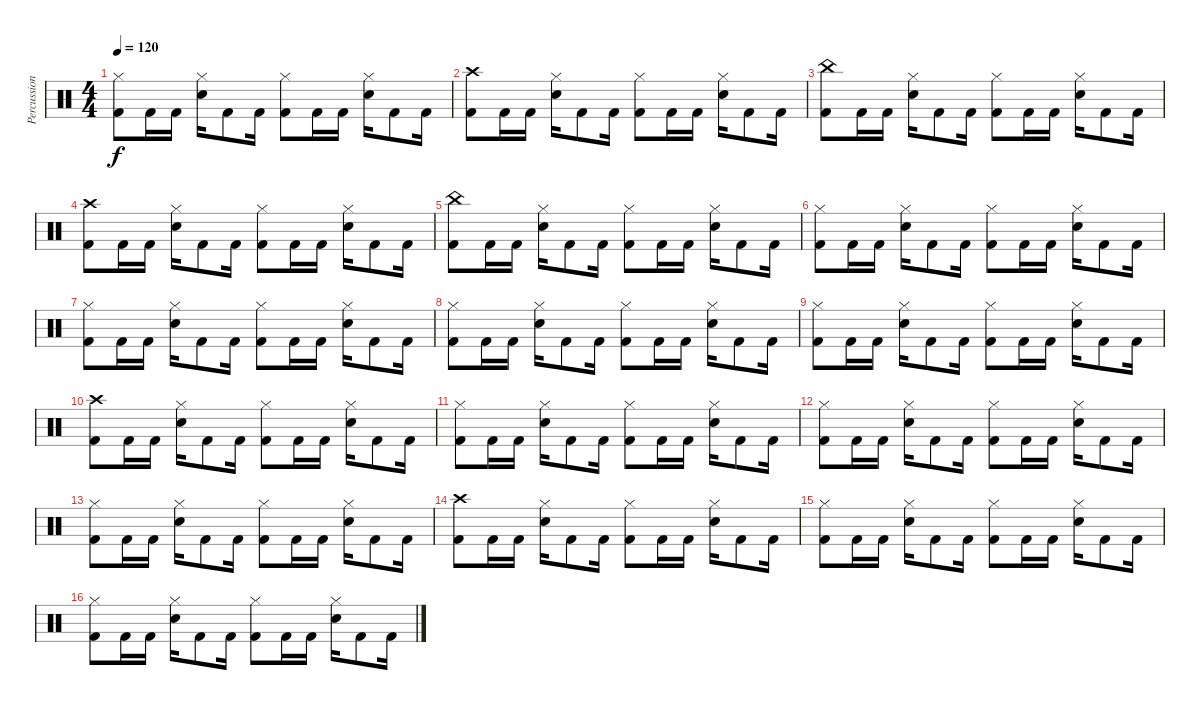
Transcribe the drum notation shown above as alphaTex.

\track ("Percussion" "Percussion") {instrument percussion}
\staff {score}
\articulation defaults
\ts (4 4)
\tempo 120
\clef neutral
\ks c
("Hi-Hat (closed)" "Kick (hit) 2").8{dy f} "Kick (hit) 2".16 "Kick (hit) 2".16 ("Hi-Hat (closed)" "Electric Snare (hit)").16 "Kick (hit) 2".8 "Kick (hit) 2".16 ("Hi-Hat (closed)" "Kick (hit) 2").8 "Kick (hit) 2".16 "Kick (hit) 2".16 ("Hi-Hat (closed)" "Electric Snare (hit)").16 "Kick (hit) 2".8 "Kick (hit) 2".16 |
("Crash high (hit)" "Kick (hit) 2").8 "Kick (hit) 2".16 "Kick (hit) 2".16 ("Hi-Hat (closed)" "Electric Snare (hit)").16 "Kick (hit) 2".8 "Kick (hit) 2".16 ("Hi-Hat (closed)" "Kick (hit) 2").8 "Kick (hit) 2".16 "Kick (hit) 2".16 ("Hi-Hat (closed)" "Electric Snare (hit)").16 "Kick (hit) 2".8 "Kick (hit) 2".16 |
("China (hit)" "Kick (hit) 2").8 "Kick (hit) 2".16 "Kick (hit) 2".16 ("Hi-Hat (closed)" "Electric Snare (hit)").16 "Kick (hit) 2".8 "Kick (hit) 2".16 ("Hi-Hat (closed)" "Kick (hit) 2").8 "Kick (hit) 2".16 "Kick (hit) 2".16 ("Hi-Hat (closed)" "Electric Snare (hit)").16 "Kick (hit) 2".8 "Kick (hit) 2".16 |
("Crash high (hit)" "Kick (hit) 2").8 "Kick (hit) 2".16 "Kick (hit) 2".16 ("Hi-Hat (closed)" "Electric Snare (hit)").16 "Kick (hit) 2".8 "Kick (hit) 2".16 ("Hi-Hat (closed)" "Kick (hit) 2").8 "Kick (hit) 2".16 "Kick (hit) 2".16 ("Hi-Hat (closed)" "Electric Snare (hit)").16 "Kick (hit) 2".8 "Kick (hit) 2".16 |
("China (hit)" "Kick (hit) 2").8 "Kick (hit) 2".16 "Kick (hit) 2".16 ("Hi-Hat (closed)" "Electric Snare (hit)").16 "Kick (hit) 2".8 "Kick (hit) 2".16 ("Hi-Hat (closed)" "Kick (hit) 2").8 "Kick (hit) 2".16 "Kick (hit) 2".16 ("Hi-Hat (closed)" "Electric Snare (hit)").16 "Kick (hit) 2".8 "Kick (hit) 2".16 |
("Hi-Hat (closed)" "Kick (hit) 2").8 "Kick (hit) 2".16 "Kick (hit) 2".16 ("Hi-Hat (closed)" "Electric Snare (hit)").16 "Kick (hit) 2".8 "Kick (hit) 2".16 ("Hi-Hat (closed)" "Kick (hit) 2").8 "Kick (hit) 2".16 "Kick (hit) 2".16 ("Hi-Hat (closed)" "Electric Snare (hit)").16 "Kick (hit) 2".8 "Kick (hit) 2".16 |
("Hi-Hat (closed)" "Kick (hit) 2").8 "Kick (hit) 2".16 "Kick (hit) 2".16 ("Hi-Hat (closed)" "Electric Snare (hit)").16 "Kick (hit) 2".8 "Kick (hit) 2".16 ("Hi-Hat (closed)" "Kick (hit) 2").8 "Kick (hit) 2".16 "Kick (hit) 2".16 ("Hi-Hat (closed)" "Electric Snare (hit)").16 "Kick (hit) 2".8 "Kick (hit) 2".16 |
("Hi-Hat (closed)" "Kick (hit) 2").8 "Kick (hit) 2".16 "Kick (hit) 2".16 ("Hi-Hat (closed)" "Electric Snare (hit)").16 "Kick (hit) 2".8 "Kick (hit) 2".16 ("Hi-Hat (closed)" "Kick (hit) 2").8 "Kick (hit) 2".16 "Kick (hit) 2".16 ("Hi-Hat (closed)" "Electric Snare (hit)").16 "Kick (hit) 2".8 "Kick (hit) 2".16 |
("Hi-Hat (closed)" "Kick (hit) 2").8 "Kick (hit) 2".16 "Kick (hit) 2".16 ("Hi-Hat (closed)" "Electric Snare (hit)").16 "Kick (hit) 2".8 "Kick (hit) 2".16 ("Hi-Hat (closed)" "Kick (hit) 2").8 "Kick (hit) 2".16 "Kick (hit) 2".16 ("Hi-Hat (closed)" "Electric Snare (hit)").16 "Kick (hit) 2".8 "Kick (hit) 2".16 |
("Crash high (hit)" "Kick (hit) 2").8 "Kick (hit) 2".16 "Kick (hit) 2".16 ("Hi-Hat (closed)" "Electric Snare (hit)").16 "Kick (hit) 2".8 "Kick (hit) 2".16 ("Hi-Hat (closed)" "Kick (hit) 2").8 "Kick (hit) 2".16 "Kick (hit) 2".16 ("Hi-Hat (closed)" "Electric Snare (hit)").16 "Kick (hit) 2".8 "Kick (hit) 2".16 |
("Hi-Hat (closed)" "Kick (hit) 2").8 "Kick (hit) 2".16 "Kick (hit) 2".16 ("Hi-Hat (closed)" "Electric Snare (hit)").16 "Kick (hit) 2".8 "Kick (hit) 2".16 ("Hi-Hat (closed)" "Kick (hit) 2").8 "Kick (hit) 2".16 "Kick (hit) 2".16 ("Hi-Hat (closed)" "Electric Snare (hit)").16 "Kick (hit) 2".8 "Kick (hit) 2".16 |
("Hi-Hat (closed)" "Kick (hit) 2").8 "Kick (hit) 2".16 "Kick (hit) 2".16 ("Hi-Hat (closed)" "Electric Snare (hit)").16 "Kick (hit) 2".8 "Kick (hit) 2".16 ("Hi-Hat (closed)" "Kick (hit) 2").8 "Kick (hit) 2".16 "Kick (hit) 2".16 ("Hi-Hat (closed)" "Electric Snare (hit)").16 "Kick (hit) 2".8 "Kick (hit) 2".16 |
("Hi-Hat (closed)" "Kick (hit) 2").8 "Kick (hit) 2".16 "Kick (hit) 2".16 ("Hi-Hat (closed)" "Electric Snare (hit)").16 "Kick (hit) 2".8 "Kick (hit) 2".16 ("Hi-Hat (closed)" "Kick (hit) 2").8 "Kick (hit) 2".16 "Kick (hit) 2".16 ("Hi-Hat (closed)" "Electric Snare (hit)").16 "Kick (hit) 2".8 "Kick (hit) 2".16 |
("Crash high (hit)" "Kick (hit) 2").8 "Kick (hit) 2".16 "Kick (hit) 2".16 ("Hi-Hat (closed)" "Electric Snare (hit)").16 "Kick (hit) 2".8 "Kick (hit) 2".16 ("Hi-Hat (closed)" "Kick (hit) 2").8 "Kick (hit) 2".16 "Kick (hit) 2".16 ("Hi-Hat (closed)" "Electric Snare (hit)").16 "Kick (hit) 2".8 "Kick (hit) 2".16 |
("Hi-Hat (closed)" "Kick (hit) 2").8 "Kick (hit) 2".16 "Kick (hit) 2".16 ("Hi-Hat (closed)" "Electric Snare (hit)").16 "Kick (hit) 2".8 "Kick (hit) 2".16 ("Hi-Hat (closed)" "Kick (hit) 2").8 "Kick (hit) 2".16 "Kick (hit) 2".16 ("Hi-Hat (closed)" "Electric Snare (hit)").16 "Kick (hit) 2".8 "Kick (hit) 2".16 |
("Hi-Hat (closed)" "Kick (hit) 2").8 "Kick (hit) 2".16 "Kick (hit) 2".16 ("Hi-Hat (closed)" "Electric Snare (hit)").16 "Kick (hit) 2".8 "Kick (hit) 2".16 ("Hi-Hat (closed)" "Kick (hit) 2").8 "Kick (hit) 2".16 "Kick (hit) 2".16 ("Hi-Hat (closed)" "Electric Snare (hit)").16 "Kick (hit) 2".8 "Kick (hit) 2".16
